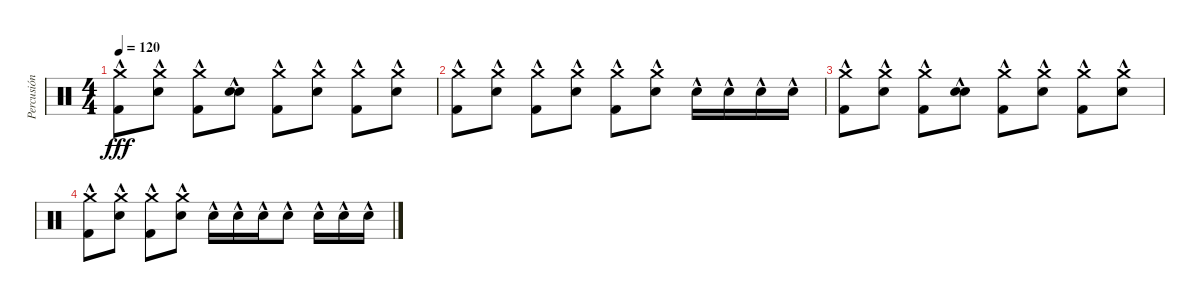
\track ("Percusión" "Percusión") {instrument percussion}
\staff {score}
\articulation defaults
\ts (4 4)
\tempo 120
\clef neutral
\ks c
("Crash medium (hit)"{hac} "Kick (hit) 2"{hac}).8{dy fff} ("Crash medium (hit)"{hac} "Electric Snare (hit)"{hac}).8 ("Crash medium (hit)"{hac} "Kick (hit) 2"{hac}).8 ("Snare (hit)"{hac} "Electric Snare (hit)"{hac}).8 ("Crash medium (hit)"{hac} "Kick (hit) 2"{hac}).8 ("Crash medium (hit)"{hac} "Electric Snare (hit)"{hac}).8 ("Crash medium (hit)"{hac} "Kick (hit) 2"{hac}).8 ("Crash medium (hit)"{hac} "Electric Snare (hit)"{hac}).8 |
("Crash medium (hit)"{hac} "Kick (hit) 2"{hac}).8 ("Crash medium (hit)"{hac} "Electric Snare (hit)"{hac}).8 ("Crash medium (hit)"{hac} "Kick (hit) 2"{hac}).8 ("Crash medium (hit)"{hac} "Electric Snare (hit)"{hac}).8 ("Crash medium (hit)"{hac} "Kick (hit) 2"{hac}).8 ("Crash medium (hit)"{hac} "Electric Snare (hit)"{hac}).8 "Electric Snare (hit)"{hac}.16 "Electric Snare (hit)"{hac}.16 "Electric Snare (hit)"{hac}.16 "Electric Snare (hit)"{hac}.16 |
("Crash medium (hit)"{hac} "Kick (hit) 2"{hac}).8 ("Crash medium (hit)"{hac} "Electric Snare (hit)"{hac}).8 ("Crash medium (hit)"{hac} "Kick (hit) 2"{hac}).8 ("Snare (hit)"{hac} "Electric Snare (hit)"{hac}).8 ("Crash medium (hit)"{hac} "Kick (hit) 2"{hac}).8 ("Crash medium (hit)"{hac} "Electric Snare (hit)"{hac}).8 ("Crash medium (hit)"{hac} "Kick (hit) 2"{hac}).8 ("Crash medium (hit)"{hac} "Electric Snare (hit)"{hac}).8 |
("Crash medium (hit)"{hac} "Kick (hit) 2"{hac}).8 ("Crash medium (hit)"{hac} "Electric Snare (hit)"{hac}).8 ("Crash medium (hit)"{hac} "Kick (hit) 2"{hac}).8 ("Crash medium (hit)"{hac} "Electric Snare (hit)"{hac}).8 "Electric Snare (hit)"{hac}.16 "Electric Snare (hit)"{hac}.16 "Electric Snare (hit)"{hac}.16 "Electric Snare (hit)"{hac}.8 "Electric Snare (hit)"{hac}.16 "Electric Snare (hit)"{hac}.16 "Electric Snare (hit)"{hac}.16
